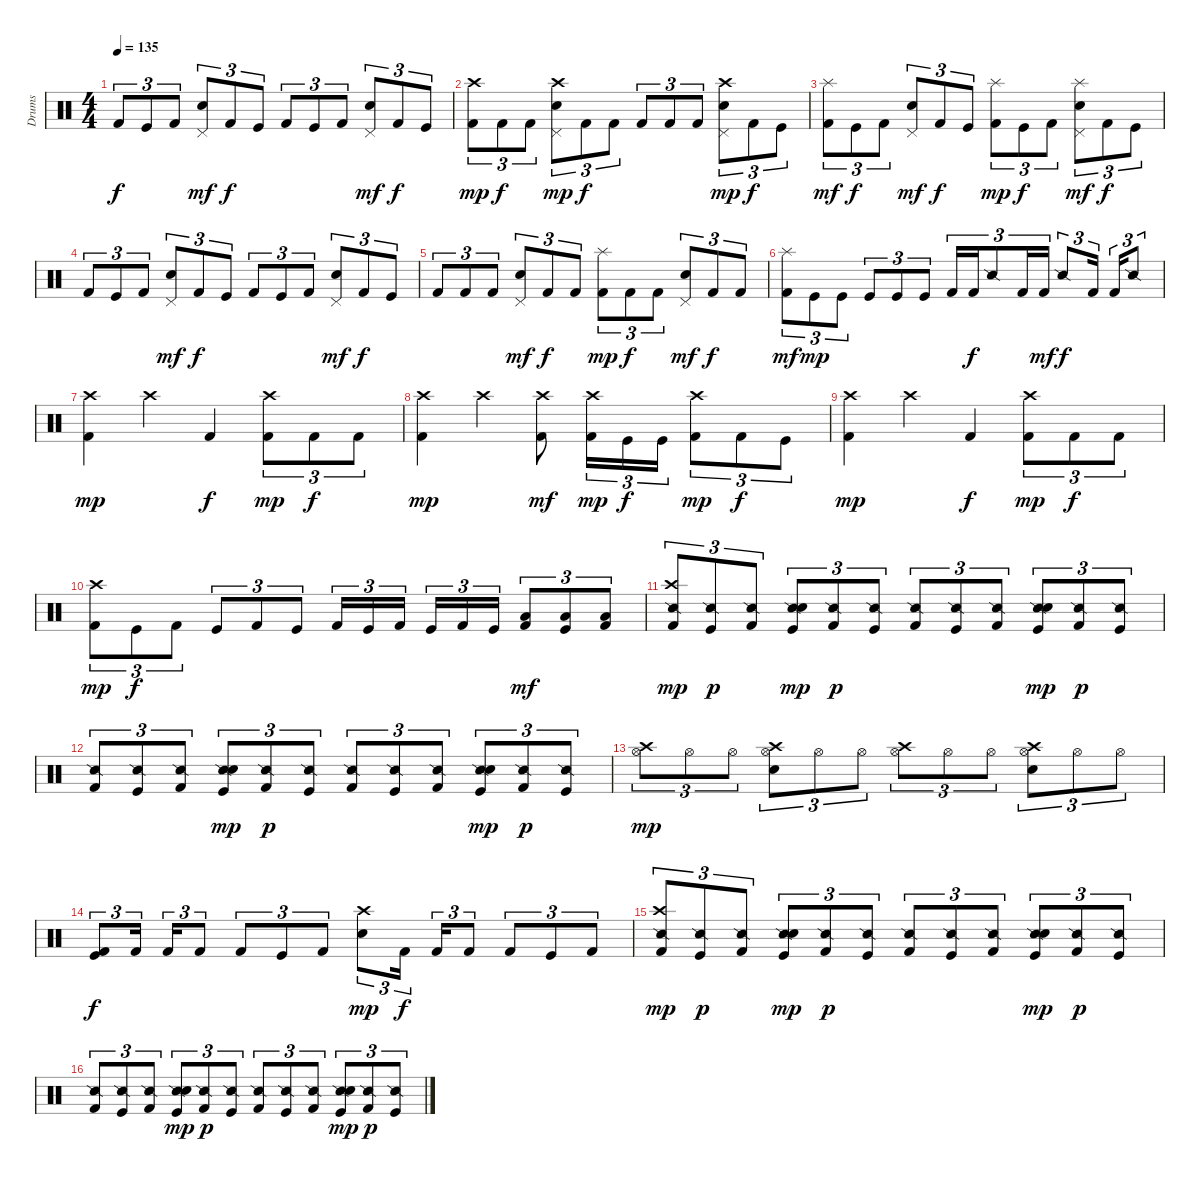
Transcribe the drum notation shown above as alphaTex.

\track ("Drums" "Drums") {instrument percussion}
\staff {score}
\articulation defaults
\ts (4 4)
\tempo 135
\clef neutral
\ks c "Kick (hit) 2".8{tu (3 2) dy f} "Kick (hit)".8{tu (3 2)} "Kick (hit) 2".8{tu (3 2)}
("Electric Snare (hit)" "Pedal Hi-Hat (hit)").8{tu (3 2) dy mf} "Kick (hit) 2".8{tu (3 2) dy f} "Kick (hit)".8{tu (3 2)} "Kick (hit) 2".8{tu (3 2)} "Kick (hit)".8{tu (3 2)} "Kick (hit) 2".8{tu (3 2)} ("Electric Snare (hit)" "Pedal Hi-Hat (hit)").8{tu (3 2) dy mf} "Kick (hit) 2".8{tu (3 2) dy f} "Kick (hit)".8{tu (3 2)} |
("Kick (hit) 2" "Crash high (hit)").8{tu (3 2) dy mp} "Kick (hit) 2".8{tu (3 2) dy f} "Kick (hit) 2".8{tu (3 2)} ("Electric Snare (hit)" "Pedal Hi-Hat (hit)" "Crash high (hit)").8{tu (3 2) dy mp} "Kick (hit) 2".8{tu (3 2) dy f} "Kick (hit) 2".8{tu (3 2)} "Kick (hit) 2".8{tu (3 2)} "Kick (hit) 2".8{tu (3 2)} "Kick (hit) 2".8{tu (3 2)} ("Electric Snare (hit)" "Pedal Hi-Hat (hit)" "Crash high (hit)").8{tu (3 2) dy mp} "Kick (hit) 2".8{tu (3 2) dy f} "Kick (hit)".8{tu (3 2)} |
("Kick (hit) 2" "Splash (hit)").8{tu (3 2) dy mf} "Kick (hit)".8{tu (3 2) dy f} "Kick (hit) 2".8{tu (3 2)} ("Electric Snare (hit)" "Pedal Hi-Hat (hit)").8{tu (3 2) dy mf} "Kick (hit) 2".8{tu (3 2) dy f} "Kick (hit)".8{tu (3 2)} ("Kick (hit) 2" "Splash (hit)").8{tu (3 2) dy mp} "Kick (hit)".8{tu (3 2) dy f} "Kick (hit) 2".8{tu (3 2)} ("Electric Snare (hit)" "Pedal Hi-Hat (hit)" "Splash (hit)").8{tu (3 2) dy mf} "Kick (hit) 2".8{tu (3 2) dy f} "Kick (hit)".8{tu (3 2)} |
"Kick (hit) 2".8{tu (3 2)} "Kick (hit)".8{tu (3 2)} "Kick (hit) 2".8{tu (3 2)} ("Electric Snare (hit)" "Pedal Hi-Hat (hit)").8{tu (3 2) dy mf} "Kick (hit) 2".8{tu (3 2) dy f} "Kick (hit)".8{tu (3 2)} "Kick (hit) 2".8{tu (3 2)} "Kick (hit)".8{tu (3 2)} "Kick (hit) 2".8{tu (3 2)} ("Electric Snare (hit)" "Pedal Hi-Hat (hit)").8{tu (3 2) dy mf} "Kick (hit) 2".8{tu (3 2) dy f} "Kick (hit)".8{tu (3 2)} |
"Kick (hit) 2".8{tu (3 2)} "Kick (hit) 2".8{tu (3 2)} "Kick (hit) 2".8{tu (3 2)} ("Electric Snare (hit)" "Pedal Hi-Hat (hit)").8{tu (3 2) dy mf} "Kick (hit) 2".8{tu (3 2) dy f} "Kick (hit) 2".8{tu (3 2)} ("Kick (hit) 2" "Splash (hit)").8{tu (3 2) dy mp} "Kick (hit) 2".8{tu (3 2) dy f} "Kick (hit) 2".8{tu (3 2)} ("Electric Snare (hit)" "Pedal Hi-Hat (hit)").8{tu (3 2) dy mf} "Kick (hit) 2".8{tu (3 2) dy f} "Kick (hit) 2".8{tu (3 2)} |
("Kick (hit) 2" "Splash (hit)").8{tu (3 2) dy mf} "Kick (hit)".8{tu (3 2) dy mp} "Kick (hit)".8{tu (3 2)} "Kick (hit)".8{tu (3 2)} "Kick (hit)".8{tu (3 2)} "Kick (hit)".8{tu (3 2)} "Kick (hit) 2".16{tu (3 2)} "Kick (hit) 2".16{tu (3 2) dy f} "Snare (side stick) 2".8{tu (3 2)} "Kick (hit) 2".16{tu (3 2)} "Kick (hit) 2".16{tu (3 2) dy mf} "Snare (side stick) 2".8{tu (3 2) dy f} "Kick (hit) 2".16{tu (3 2)} "Kick (hit) 2".16{tu (3 2)} "Snare (side stick) 2".8{tu (3 2)} |
("Kick (hit) 2" "Crash high (hit)").4{dy mp} "Crash high (hit)".4 "Kick (hit) 2".4{dy f} ("Kick (hit) 2" "Crash high (hit)").8{tu (3 2) dy mp} "Kick (hit) 2".8{tu (3 2) dy f} "Kick (hit) 2".8{tu (3 2)} |
("Kick (hit) 2" "Crash high (hit)").4{dy mp} "Crash high (hit)".4 ("Kick (hit) 2" "Crash high (hit)").8{dy mf} ("Kick (hit) 2" "Crash high (hit)").16{tu (3 2) dy mp} "Kick (hit)".16{tu (3 2) dy f} "Kick (hit)".16{tu (3 2)} ("Kick (hit) 2" "Crash high (hit)").8{tu (3 2) dy mp} "Kick (hit) 2".8{tu (3 2) dy f} "Kick (hit)".8{tu (3 2)} |
("Kick (hit) 2" "Crash high (hit)").4{dy mp} "Crash high (hit)".4 "Kick (hit) 2".4{dy f} ("Kick (hit) 2" "Crash high (hit)").8{tu (3 2) dy mp} "Kick (hit) 2".8{tu (3 2) dy f} "Kick (hit) 2".8{tu (3 2)} |
("Kick (hit) 2" "Crash high (hit)").8{tu (3 2) dy mp} "Kick (hit)".8{tu (3 2) dy f} "Kick (hit) 2".8{tu (3 2)} "Kick (hit)".8{tu (3 2)} "Kick (hit) 2".8{tu (3 2)} "Kick (hit)".8{tu (3 2)} "Kick (hit) 2".16{tu (3 2)} "Kick (hit)".16{tu (3 2)} "Kick (hit) 2".16{tu (3 2)} "Kick (hit)".16{tu (3 2)} "Kick (hit) 2".16{tu (3 2)} "Kick (hit)".16{tu (3 2)} ("Kick (hit) 2" "Low Floor Tom (hit)").8{tu (3 2) dy mf} ("Kick (hit)" "Low Floor Tom (hit)").8{tu (3 2)} ("Kick (hit) 2" "Low Floor Tom (hit)").8{tu (3 2)} |
("Kick (hit) 2" "Snare (side stick) 2" "Crash high (hit)").8{tu (3 2) dy mp} ("Kick (hit)" "Snare (side stick) 2").8{tu (3 2) dy p} ("Kick (hit) 2" "Snare (side stick) 2").8{tu (3 2)} ("Kick (hit)" "Snare (side stick) 2" "Snare (hit) 2").8{tu (3 2) dy mp} ("Kick (hit) 2" "Snare (side stick) 2").8{tu (3 2) dy p} ("Kick (hit)" "Snare (side stick) 2").8{tu (3 2)} ("Kick (hit) 2" "Snare (side stick) 2").8{tu (3 2)} ("Kick (hit)" "Snare (side stick) 2").8{tu (3 2)} ("Kick (hit) 2" "Snare (side stick) 2").8{tu (3 2)} ("Kick (hit)" "Snare (side stick) 2" "Snare (hit) 2").8{tu (3 2) dy mp} ("Kick (hit) 2" "Snare (side stick) 2").8{tu (3 2) dy p} ("Kick (hit)" "Snare (side stick) 2").8{tu (3 2)} |
("Kick (hit) 2" "Snare (side stick) 2").8{tu (3 2)} ("Kick (hit)" "Snare (side stick) 2").8{tu (3 2)} ("Kick (hit) 2" "Snare (side stick) 2").8{tu (3 2)} ("Kick (hit)" "Snare (side stick) 2" "Snare (hit) 2").8{tu (3 2) dy mp} ("Kick (hit) 2" "Snare (side stick) 2").8{tu (3 2) dy p} ("Kick (hit)" "Snare (side stick) 2").8{tu (3 2)} ("Kick (hit) 2" "Snare (side stick) 2").8{tu (3 2)} ("Kick (hit)" "Snare (side stick) 2").8{tu (3 2)} ("Kick (hit) 2" "Snare (side stick) 2").8{tu (3 2)} ("Kick (hit)" "Snare (side stick) 2" "Snare (hit) 2").8{tu (3 2) dy mp} ("Kick (hit) 2" "Snare (side stick) 2").8{tu (3 2) dy p} ("Kick (hit)" "Snare (side stick) 2").8{tu (3 2)} |
("Hi-Hat (open)" "Crash high (hit)").8{tu (3 2) dy mp} "Hi-Hat (open)".8{tu (3 2)} "Hi-Hat (open)".8{tu (3 2)} ("Hi-Hat (open)" "Snare (hit) 2" "Crash high (hit)").8{tu (3 2)} "Hi-Hat (open)".8{tu (3 2)} "Hi-Hat (open)".8{tu (3 2)} ("Hi-Hat (open)" "Crash high (hit)").8{tu (3 2)} "Hi-Hat (open)".8{tu (3 2)} "Hi-Hat (open)".8{tu (3 2)} ("Hi-Hat (open)" "Snare (hit) 2" "Crash high (hit)").8{tu (3 2)} "Hi-Hat (open)".8{tu (3 2)} "Hi-Hat (open)".8{tu (3 2)} |
("Kick (hit) 2" "Kick (hit)").8{tu (3 2) dy f} "Kick (hit) 2".16{tu (3 2)} "Kick (hit) 2".16{tu (3 2)} "Kick (hit) 2".8{tu (3 2)} "Kick (hit) 2".8{tu (3 2)} "Kick (hit)".8{tu (3 2)} "Kick (hit) 2".8{tu (3 2)} ("Snare (hit) 2" "Crash high (hit)").8{tu (3 2) dy mp} "Kick (hit) 2".16{tu (3 2) dy f} "Kick (hit) 2".16{tu (3 2)} "Kick (hit) 2".8{tu (3 2)} "Kick (hit) 2".8{tu (3 2)} "Kick (hit)".8{tu (3 2)} "Kick (hit) 2".8{tu (3 2)} |
("Kick (hit) 2" "Snare (side stick) 2" "Crash high (hit)").8{tu (3 2) dy mp} ("Kick (hit)" "Snare (side stick) 2").8{tu (3 2) dy p} ("Kick (hit) 2" "Snare (side stick) 2").8{tu (3 2)} ("Kick (hit)" "Snare (side stick) 2" "Snare (hit) 2").8{tu (3 2) dy mp} ("Kick (hit) 2" "Snare (side stick) 2").8{tu (3 2) dy p} ("Kick (hit)" "Snare (side stick) 2").8{tu (3 2)} ("Kick (hit) 2" "Snare (side stick) 2").8{tu (3 2)} ("Kick (hit)" "Snare (side stick) 2").8{tu (3 2)} ("Kick (hit) 2" "Snare (side stick) 2").8{tu (3 2)} ("Kick (hit)" "Snare (side stick) 2" "Snare (hit) 2").8{tu (3 2) dy mp} ("Kick (hit) 2" "Snare (side stick) 2").8{tu (3 2) dy p} ("Kick (hit)" "Snare (side stick) 2").8{tu (3 2)} |
("Kick (hit) 2" "Snare (side stick) 2").8{tu (3 2)} ("Kick (hit)" "Snare (side stick) 2").8{tu (3 2)} ("Kick (hit) 2" "Snare (side stick) 2").8{tu (3 2)} ("Kick (hit)" "Snare (side stick) 2" "Snare (hit) 2").8{tu (3 2) dy mp} ("Kick (hit) 2" "Snare (side stick) 2").8{tu (3 2) dy p} ("Kick (hit)" "Snare (side stick) 2").8{tu (3 2)} ("Kick (hit) 2" "Snare (side stick) 2").8{tu (3 2)} ("Kick (hit)" "Snare (side stick) 2").8{tu (3 2)} ("Kick (hit) 2" "Snare (side stick) 2").8{tu (3 2)} ("Kick (hit)" "Snare (side stick) 2" "Snare (hit) 2").8{tu (3 2) dy mp} ("Kick (hit) 2" "Snare (side stick) 2").8{tu (3 2) dy p} ("Kick (hit)" "Snare (side stick) 2").8{tu (3 2)}
